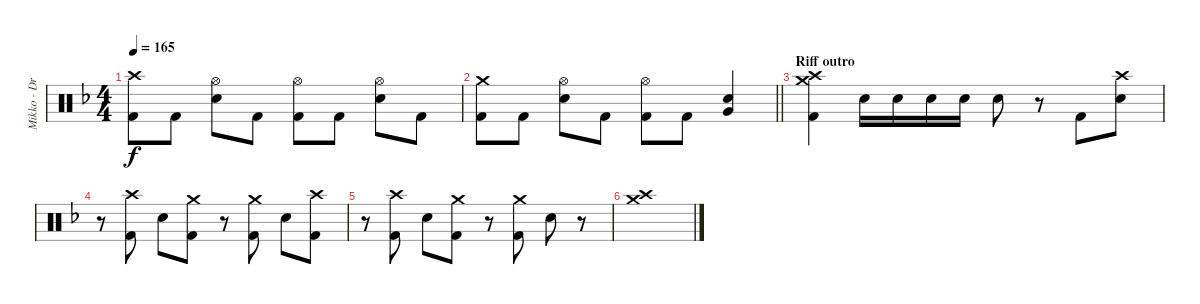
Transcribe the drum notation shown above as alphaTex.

\track ("Mikko - Drums" "Mikko - Dr") {instrument percussion}
\staff {score}
\articulation defaults
\ts (4 4)
\tempo 165
\clef neutral
\ks dminor
("Crash high (hit)" "Kick (hit) 2").8{dy f} "Kick (hit) 2".8 ("Hi-Hat (open)" "Snare (hit) 2").8 "Kick (hit) 2".8 ("Hi-Hat (open)" "Kick (hit) 2").8 "Kick (hit) 2".8 ("Hi-Hat (open)" "Snare (hit) 2").8 "Kick (hit) 2".8 |
\barLineRight lightlight
("Crash medium (hit)" "Kick (hit) 2").8 "Kick (hit) 2".8 ("Hi-Hat (open)" "Snare (hit) 2").8 "Kick (hit) 2".8 ("Hi-Hat (open)" "Kick (hit) 2").8 "Kick (hit) 2".8 ("Snare (hit) 2" "Very Low Tom (hit)").4 |
\section ("" "Riff outro")
("Crash medium (hit)" "Crash high (hit)" "Kick (hit) 2").4 "Snare (hit) 2".16 "Snare (hit) 2".16 "Snare (hit) 2".16 "Snare (hit) 2".16 "Snare (hit) 2".8 r.8 "Kick (hit) 2".8 ("Crash high (hit)" "Snare (hit) 2").8 |
r.8 ("Crash high (hit)" "Kick (hit) 2").8 "Snare (hit) 2".8 ("Crash medium (hit)" "Kick (hit) 2").8 r.8 ("Crash medium (hit)" "Kick (hit) 2").8 "Snare (hit) 2".8 ("Crash high (hit)" "Kick (hit) 2").8 |
r.8 ("Crash high (hit)" "Kick (hit) 2").8 "Snare (hit) 2".8 ("Crash medium (hit)" "Kick (hit) 2").8 r.8 ("Crash medium (hit)" "Kick (hit) 2").8 "Snare (hit) 2".8 r.8 |
("Crash medium (hit)" "Crash high (hit)").1
